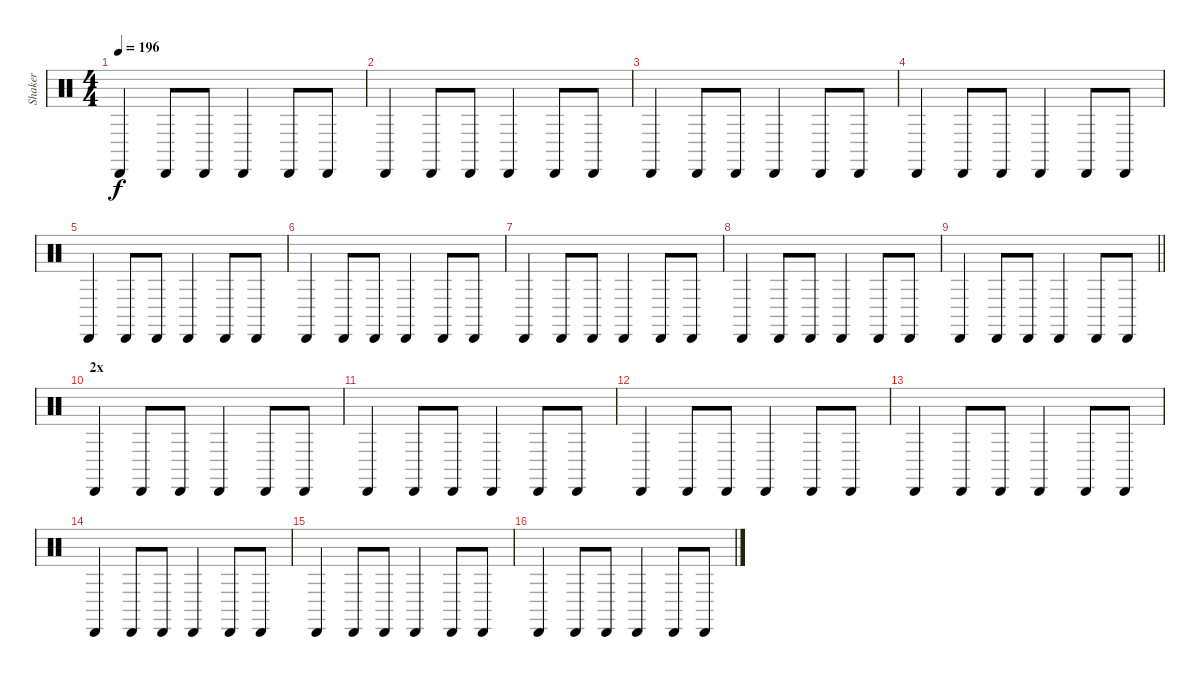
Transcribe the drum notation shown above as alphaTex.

\track ("Shaker" "Shaker") {instrument percussion bank 126}
\staff {score}
\articulation defaults
\ts (4 4)
\tempo 196
\clef neutral
\ks c "Cabasa (hit)".4{dy f} "Cabasa (hit)".8 "Cabasa (hit)".8 "Cabasa (hit)".4 "Cabasa (hit)".8 "Cabasa (hit)".8
|
"Cabasa (hit)".4 "Cabasa (hit)".8 "Cabasa (hit)".8 "Cabasa (hit)".4 "Cabasa (hit)".8 "Cabasa (hit)".8 |
"Cabasa (hit)".4 "Cabasa (hit)".8 "Cabasa (hit)".8 "Cabasa (hit)".4 "Cabasa (hit)".8 "Cabasa (hit)".8 |
"Cabasa (hit)".4 "Cabasa (hit)".8 "Cabasa (hit)".8 "Cabasa (hit)".4 "Cabasa (hit)".8 "Cabasa (hit)".8 |
"Cabasa (hit)".4 "Cabasa (hit)".8 "Cabasa (hit)".8 "Cabasa (hit)".4 "Cabasa (hit)".8 "Cabasa (hit)".8 |
"Cabasa (hit)".4 "Cabasa (hit)".8 "Cabasa (hit)".8 "Cabasa (hit)".4 "Cabasa (hit)".8 "Cabasa (hit)".8 |
"Cabasa (hit)".4 "Cabasa (hit)".8 "Cabasa (hit)".8 "Cabasa (hit)".4 "Cabasa (hit)".8 "Cabasa (hit)".8 |
"Cabasa (hit)".4 "Cabasa (hit)".8 "Cabasa (hit)".8 "Cabasa (hit)".4 "Cabasa (hit)".8 "Cabasa (hit)".8 |
\barLineRight lightlight "Cabasa (hit)".4 "Cabasa (hit)".8 "Cabasa (hit)".8 "Cabasa (hit)".4 "Cabasa (hit)".8 "Cabasa (hit)".8
|
\section ("" "2x")
"Cabasa (hit)".4 "Cabasa (hit)".8 "Cabasa (hit)".8 "Cabasa (hit)".4 "Cabasa (hit)".8 "Cabasa (hit)".8 |
"Cabasa (hit)".4 "Cabasa (hit)".8 "Cabasa (hit)".8 "Cabasa (hit)".4 "Cabasa (hit)".8 "Cabasa (hit)".8 |
"Cabasa (hit)".4 "Cabasa (hit)".8 "Cabasa (hit)".8 "Cabasa (hit)".4 "Cabasa (hit)".8 "Cabasa (hit)".8 |
"Cabasa (hit)".4 "Cabasa (hit)".8 "Cabasa (hit)".8 "Cabasa (hit)".4 "Cabasa (hit)".8 "Cabasa (hit)".8 |
"Cabasa (hit)".4 "Cabasa (hit)".8 "Cabasa (hit)".8 "Cabasa (hit)".4 "Cabasa (hit)".8 "Cabasa (hit)".8 |
"Cabasa (hit)".4 "Cabasa (hit)".8 "Cabasa (hit)".8 "Cabasa (hit)".4 "Cabasa (hit)".8 "Cabasa (hit)".8 |
"Cabasa (hit)".4 "Cabasa (hit)".8 "Cabasa (hit)".8 "Cabasa (hit)".4 "Cabasa (hit)".8 "Cabasa (hit)".8
